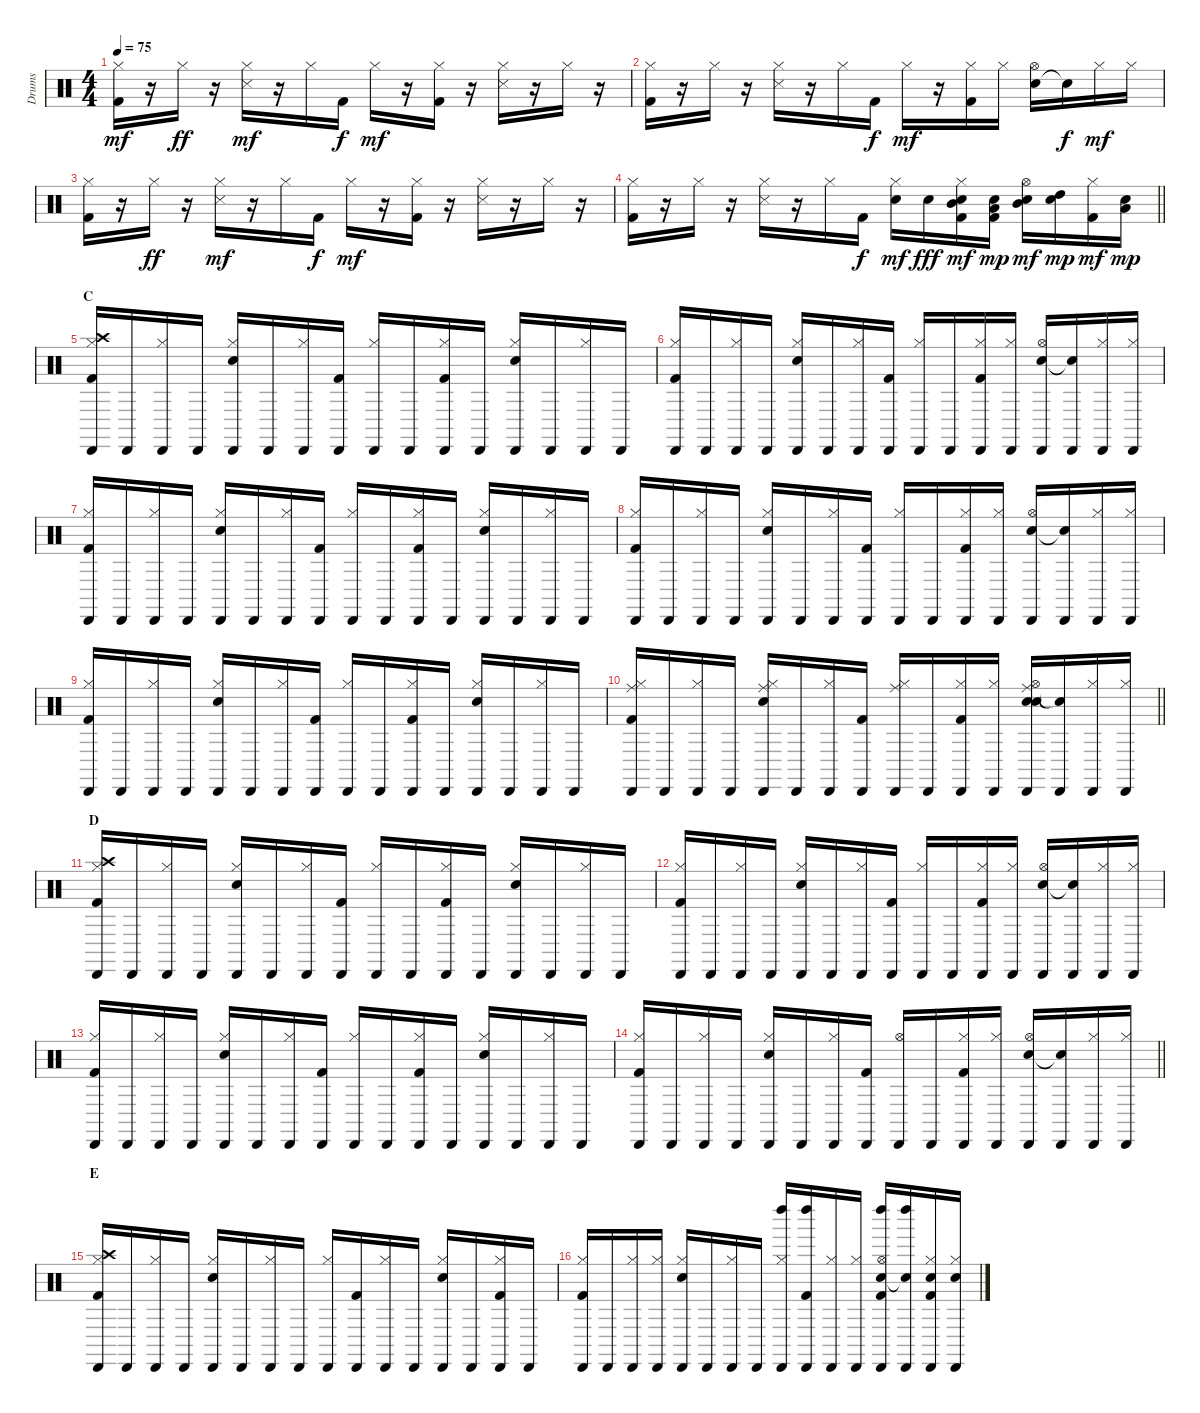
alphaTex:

\track ("Drums" "Drums") {instrument percussion}
\staff {score}
\articulation defaults
\ts (4 4)
\tempo 75
\clef neutral
\ks c
("Kick (hit) 2" "Hi-Hat (closed)").16{dy mf} r.16 "Hi-Hat (closed)".16{dy ff} r.16 ("Snare (side stick) 3" "Hi-Hat (closed)").16{dy mf} r.16 "Hi-Hat (closed)".16 "Kick (hit) 2".16{dy f} "Hi-Hat (closed)".16{dy mf} r.16 ("Kick (hit) 2" "Hi-Hat (closed)").16 r.16 ("Snare (side stick) 3" "Hi-Hat (closed)").16 r.16 "Hi-Hat (closed)".16 r.16 |
("Kick (hit) 2" "Hi-Hat (closed)").16 r.16 "Hi-Hat (closed)".16 r.16 ("Snare (side stick) 3" "Hi-Hat (closed)").16 r.16 "Hi-Hat (closed)".16 "Kick (hit) 2".16{dy f} "Hi-Hat (closed)".16{dy mf} r.16 ("Kick (hit) 2" "Hi-Hat (closed)").16 "Hi-Hat (closed)".16 ("Electric Snare (hit)" "Hi-Hat (open)").16 "Snare (hit)"{t}.16{dy f} "Hi-Hat (closed)".16{dy mf} "Hi-Hat (closed)".16 |
("Kick (hit) 2" "Hi-Hat (closed)").16 r.16 "Hi-Hat (closed)".16{dy ff} r.16 ("Snare (side stick) 3" "Hi-Hat (closed)").16{dy mf} r.16 "Hi-Hat (closed)".16 "Kick (hit) 2".16{dy f} "Hi-Hat (closed)".16{dy mf} r.16 ("Kick (hit) 2" "Hi-Hat (closed)").16 r.16 ("Snare (side stick) 3" "Hi-Hat (closed)").16 r.16 "Hi-Hat (closed)".16 r.16 |
\barLineRight lightlight
("Kick (hit) 2" "Hi-Hat (closed)").16 r.16 "Hi-Hat (closed)".16 r.16 ("Snare (side stick) 3" "Hi-Hat (closed)").16 r.16 "Hi-Hat (closed)".16 "Kick (hit) 2".16{dy f} ("Electric Snare (hit)" "Hi-Hat (closed)").16{dy mf} "Electric Snare (hit)".16{dy fff} ("Mid Tom (hit)" "Electric Snare (hit)" "Kick (hit) 2" "Hi-Hat (closed)").16{dy mf} ("Low Tom (hit)" "Electric Snare (hit)" "Kick (hit) 2").16{dy mp} ("Mid Tom (hit)" "Electric Snare (hit)" "Hi-Hat (open)").16{dy mf} ("High Tom (hit)" "Electric Snare (hit)").16{dy mp} ("Kick (hit) 2" "Hi-Hat (closed)").16{dy mf} ("Low Tom (hit)" "Electric Snare (hit)").16{dy mp} |
\section ("" "C")
("Crash high (hit)" "Kick (hit) 2" "Hi-Hat (closed)" "Cabasa (hit)").16 "Cabasa (hit)".16 ("Hi-Hat (closed)" "Cabasa (hit)").16 "Cabasa (hit)".16 ("Electric Snare (hit)" "Hi-Hat (closed)" "Cabasa (hit)").16 "Cabasa (hit)".16 ("Hi-Hat (closed)" "Cabasa (hit)").16 ("Kick (hit) 2" "Cabasa (hit)").16 ("Hi-Hat (closed)" "Cabasa (hit)").16 "Cabasa (hit)".16 ("Kick (hit) 2" "Hi-Hat (closed)" "Cabasa (hit)").16 "Cabasa (hit)".16 ("Electric Snare (hit)" "Hi-Hat (closed)" "Cabasa (hit)").16 "Cabasa (hit)".16 ("Hi-Hat (closed)" "Cabasa (hit)").16 "Cabasa (hit)".16 |
("Kick (hit) 2" "Hi-Hat (closed)" "Cabasa (hit)").16 "Cabasa (hit)".16 ("Hi-Hat (closed)" "Cabasa (hit)").16 "Cabasa (hit)".16 ("Electric Snare (hit)" "Hi-Hat (closed)" "Cabasa (hit)").16 "Cabasa (hit)".16 ("Hi-Hat (closed)" "Cabasa (hit)").16 ("Kick (hit) 2" "Cabasa (hit)").16 ("Hi-Hat (closed)" "Cabasa (hit)").16 "Cabasa (hit)".16 ("Kick (hit) 2" "Hi-Hat (closed)" "Cabasa (hit)").16 ("Hi-Hat (closed)" "Cabasa (hit)").16 ("Electric Snare (hit)" "Hi-Hat (open)" "Cabasa (hit)").16 ("Snare (hit)"{t} "Cabasa (hit)").16 ("Hi-Hat (closed)" "Cabasa (hit)").16 ("Hi-Hat (closed)" "Cabasa (hit)").16 |
("Kick (hit) 2" "Hi-Hat (closed)" "Cabasa (hit)").16 "Cabasa (hit)".16 ("Hi-Hat (closed)" "Cabasa (hit)").16 "Cabasa (hit)".16 ("Electric Snare (hit)" "Hi-Hat (closed)" "Cabasa (hit)").16 "Cabasa (hit)".16 ("Hi-Hat (closed)" "Cabasa (hit)").16 ("Kick (hit) 2" "Cabasa (hit)").16 ("Hi-Hat (closed)" "Cabasa (hit)").16 "Cabasa (hit)".16 ("Kick (hit) 2" "Hi-Hat (closed)" "Cabasa (hit)").16 "Cabasa (hit)".16 ("Electric Snare (hit)" "Hi-Hat (closed)" "Cabasa (hit)").16 "Cabasa (hit)".16 ("Hi-Hat (closed)" "Cabasa (hit)").16 "Cabasa (hit)".16 |
("Kick (hit) 2" "Hi-Hat (closed)" "Cabasa (hit)").16 "Cabasa (hit)".16 ("Hi-Hat (closed)" "Cabasa (hit)").16 "Cabasa (hit)".16 ("Electric Snare (hit)" "Hi-Hat (closed)" "Cabasa (hit)").16 "Cabasa (hit)".16 ("Hi-Hat (closed)" "Cabasa (hit)").16 ("Kick (hit) 2" "Cabasa (hit)").16 ("Hi-Hat (closed)" "Cabasa (hit)").16 "Cabasa (hit)".16 ("Kick (hit) 2" "Hi-Hat (closed)" "Cabasa (hit)").16 ("Hi-Hat (closed)" "Cabasa (hit)").16 ("Electric Snare (hit)" "Hi-Hat (open)" "Cabasa (hit)").16 ("Snare (hit)"{t} "Cabasa (hit)").16 ("Hi-Hat (closed)" "Cabasa (hit)").16 ("Hi-Hat (closed)" "Cabasa (hit)").16 |
("Kick (hit) 2" "Hi-Hat (closed)" "Cabasa (hit)").16 "Cabasa (hit)".16 ("Hi-Hat (closed)" "Cabasa (hit)").16 "Cabasa (hit)".16 ("Electric Snare (hit)" "Hi-Hat (closed)" "Cabasa (hit)").16 "Cabasa (hit)".16 ("Hi-Hat (closed)" "Cabasa (hit)").16 ("Kick (hit) 2" "Cabasa (hit)").16 ("Hi-Hat (closed)" "Cabasa (hit)").16 "Cabasa (hit)".16 ("Kick (hit) 2" "Hi-Hat (closed)" "Cabasa (hit)").16 "Cabasa (hit)".16 ("Electric Snare (hit)" "Hi-Hat (closed)" "Cabasa (hit)").16 "Cabasa (hit)".16 ("Hi-Hat (closed)" "Cabasa (hit)").16 "Cabasa (hit)".16 |
\barLineRight lightlight
("Ride (middle)" "Kick (hit) 2" "Hi-Hat (closed)" "Cabasa (hit)").16 "Cabasa (hit)".16 ("Hi-Hat (closed)" "Cabasa (hit)").16 "Cabasa (hit)".16 ("Ride (middle)" "Electric Snare (hit)" "Hi-Hat (closed)" "Cabasa (hit)").16 "Cabasa (hit)".16 ("Hi-Hat (closed)" "Cabasa (hit)").16 ("Kick (hit) 2" "Cabasa (hit)").16 ("Ride (middle)" "Hi-Hat (closed)" "Cabasa (hit)").16 "Cabasa (hit)".16 ("Kick (hit) 2" "Hi-Hat (closed)" "Cabasa (hit)").16 ("Hi-Hat (closed)" "Cabasa (hit)").16 ("Ride (middle)" "Snare (hit) 2" "Electric Snare (hit)" "Hi-Hat (open)" "Cabasa (hit)").16 ("Snare (hit)"{t} "Cabasa (hit)").16 ("Hi-Hat (closed)" "Cabasa (hit)").16 ("Hi-Hat (closed)" "Cabasa (hit)").16 |
\section ("" "D")
("Crash high (hit)" "Kick (hit) 2" "Hi-Hat (closed)" "Cabasa (hit)").16 "Cabasa (hit)".16 ("Hi-Hat (closed)" "Cabasa (hit)").16 "Cabasa (hit)".16 ("Electric Snare (hit)" "Hi-Hat (closed)" "Cabasa (hit)").16 "Cabasa (hit)".16 ("Hi-Hat (closed)" "Cabasa (hit)").16 ("Kick (hit) 2" "Cabasa (hit)").16 ("Hi-Hat (closed)" "Cabasa (hit)").16 "Cabasa (hit)".16 ("Kick (hit) 2" "Hi-Hat (closed)" "Cabasa (hit)").16 "Cabasa (hit)".16 ("Electric Snare (hit)" "Hi-Hat (closed)" "Cabasa (hit)").16 "Cabasa (hit)".16 ("Hi-Hat (closed)" "Cabasa (hit)").16 "Cabasa (hit)".16 |
("Kick (hit) 2" "Hi-Hat (closed)" "Cabasa (hit)").16 "Cabasa (hit)".16 ("Hi-Hat (closed)" "Cabasa (hit)").16 "Cabasa (hit)".16 ("Electric Snare (hit)" "Hi-Hat (closed)" "Cabasa (hit)").16 "Cabasa (hit)".16 ("Hi-Hat (closed)" "Cabasa (hit)").16 ("Kick (hit) 2" "Cabasa (hit)").16 ("Hi-Hat (closed)" "Cabasa (hit)").16 "Cabasa (hit)".16 ("Kick (hit) 2" "Hi-Hat (closed)" "Cabasa (hit)").16 ("Hi-Hat (closed)" "Cabasa (hit)").16 ("Electric Snare (hit)" "Hi-Hat (open)" "Cabasa (hit)").16 ("Snare (hit)"{t} "Cabasa (hit)").16 ("Hi-Hat (closed)" "Cabasa (hit)").16 ("Hi-Hat (closed)" "Cabasa (hit)").16 |
("Kick (hit) 2" "Hi-Hat (closed)" "Cabasa (hit)").16 "Cabasa (hit)".16 ("Hi-Hat (closed)" "Cabasa (hit)").16 "Cabasa (hit)".16 ("Electric Snare (hit)" "Hi-Hat (closed)" "Cabasa (hit)").16 "Cabasa (hit)".16 ("Hi-Hat (closed)" "Cabasa (hit)").16 ("Kick (hit) 2" "Cabasa (hit)").16 ("Hi-Hat (closed)" "Cabasa (hit)").16 "Cabasa (hit)".16 ("Kick (hit) 2" "Hi-Hat (closed)" "Cabasa (hit)").16 "Cabasa (hit)".16 ("Electric Snare (hit)" "Hi-Hat (closed)" "Cabasa (hit)").16 "Cabasa (hit)".16 ("Hi-Hat (closed)" "Cabasa (hit)").16 "Cabasa (hit)".16 |
\barLineRight lightlight
("Kick (hit) 2" "Hi-Hat (closed)" "Cabasa (hit)").16 "Cabasa (hit)".16 ("Hi-Hat (closed)" "Cabasa (hit)").16 "Cabasa (hit)".16 ("Electric Snare (hit)" "Hi-Hat (closed)" "Cabasa (hit)").16 "Cabasa (hit)".16 ("Hi-Hat (closed)" "Cabasa (hit)").16 ("Kick (hit) 2" "Cabasa (hit)").16 ("Hi-Hat (open)" "Cabasa (hit)").16 "Cabasa (hit)".16 ("Kick (hit) 2" "Hi-Hat (closed)" "Cabasa (hit)").16 ("Hi-Hat (closed)" "Cabasa (hit)").16 ("Electric Snare (hit)" "Hi-Hat (open)" "Cabasa (hit)").16 ("Snare (hit)"{t} "Cabasa (hit)").16 ("Hi-Hat (closed)" "Cabasa (hit)").16 ("Hi-Hat (closed)" "Cabasa (hit)").16 |
\section ("" "E")
("Crash high (hit)" "Kick (hit) 2" "Hi-Hat (closed)" "Cabasa (hit)").16 "Cabasa (hit)".16 ("Hi-Hat (closed)" "Cabasa (hit)").16 "Cabasa (hit)".16 ("Electric Snare (hit)" "Hi-Hat (closed)" "Cabasa (hit)").16 "Cabasa (hit)".16 ("Hi-Hat (closed)" "Cabasa (hit)").16 "Cabasa (hit)".16 ("Hi-Hat (closed)" "Cabasa (hit)").16 ("Kick (hit) 2" "Cabasa (hit)").16 ("Hi-Hat (closed)" "Cabasa (hit)").16 "Cabasa (hit)".16 ("Electric Snare (hit)" "Hi-Hat (closed)" "Cabasa (hit)").16 "Cabasa (hit)".16 ("Kick (hit) 2" "Hi-Hat (closed)" "Cabasa (hit)").16 "Cabasa (hit)".16 |
("Kick (hit) 2" "Hi-Hat (closed)" "Cabasa (hit)").16 "Cabasa (hit)".16 ("Hi-Hat (closed)" "Cabasa (hit)").16 ("Hi-Hat (closed)" "Cabasa (hit)").16 ("Electric Snare (hit)" "Hi-Hat (closed)" "Cabasa (hit)").16 "Cabasa (hit)".16 ("Hi-Hat (closed)" "Cabasa (hit)").16 "Cabasa (hit)".16 ("Left Maraca (hit)" "Hi-Hat (closed)" "Cabasa (hit)").16 ("Left Maraca (hit)" "Kick (hit) 2" "Cabasa (hit)").16 ("Hi-Hat (closed)" "Cabasa (hit)").16 ("Hi-Hat (closed)" "Cabasa (hit)").16 ("Left Maraca (hit)" "Electric Snare (hit)" "Kick (hit) 2" "Hi-Hat (open)" "Cabasa (hit)").16 ("Left Maraca (hit)" "Snare (hit)"{t} "Cabasa (hit)").16 ("Electric Snare (hit)" "Kick (hit) 2" "Hi-Hat (closed)" "Cabasa (hit)").16 ("Electric Snare (hit)" "Hi-Hat (closed)" "Cabasa (hit)").16
